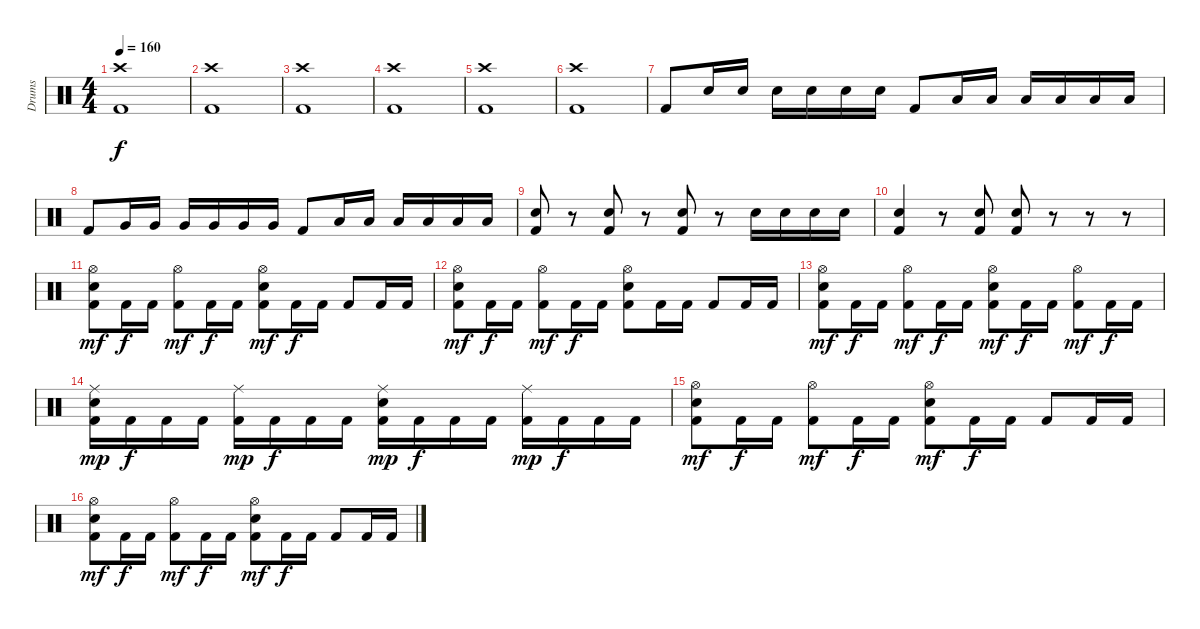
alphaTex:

\track ("Drums" "Drums") {instrument percussion}
\staff {score}
\articulation defaults
\ts (4 4)
\tempo 160
\clef neutral
\ks c
("Crash high (hit)" "Kick (hit) 2").1{dy f} |
("Crash high (hit)" "Kick (hit) 2").1 |
("Crash high (hit)" "Kick (hit) 2").1 |
("Crash high (hit)" "Kick (hit) 2").1 |
("Crash high (hit)" "Kick (hit) 2").1 |
("Crash high (hit)" "Kick (hit) 2").1 |
"Kick (hit) 2".8 "Electric Snare (hit)".16 "Electric Snare (hit)".16 "Electric Snare (hit)".16 "Electric Snare (hit)".16 "Electric Snare (hit)".16 "Electric Snare (hit)".16 "Kick (hit) 2".8 "Low Tom (hit)".16 "Low Tom (hit)".16 "Low Tom (hit)".16 "Low Tom (hit)".16 "Low Tom (hit)".16 "Low Tom (hit)".16 |
"Kick (hit) 2".8 "Very Low Tom (hit)".16 "Very Low Tom (hit)".16 "Very Low Tom (hit)".16 "Very Low Tom (hit)".16 "Very Low Tom (hit)".16 "Very Low Tom (hit)".16 "Kick (hit) 2".8 "Low Floor Tom (hit)".16 "Low Floor Tom (hit)".16 "Low Floor Tom (hit)".16 "Low Floor Tom (hit)".16 "Low Floor Tom (hit)".16 "Low Floor Tom (hit)".16 |
("Electric Snare (hit)" "Kick (hit) 2").8 r.8 ("Electric Snare (hit)" "Kick (hit) 2").8 r.8 ("Electric Snare (hit)" "Kick (hit) 2").8 r.8 "Electric Snare (hit)".16 "Electric Snare (hit)".16 "Electric Snare (hit)".16 "Electric Snare (hit)".16 |
("Electric Snare (hit)" "Kick (hit) 2").4 r.8 ("Electric Snare (hit)" "Kick (hit) 2").8 ("Electric Snare (hit)" "Kick (hit) 2").8 r.8 r.8 r.8 |
("Hi-Hat (open)" "Electric Snare (hit)" "Kick (hit) 2").8{dy mf} "Kick (hit) 2".16{dy f} "Kick (hit) 2".16 ("Hi-Hat (open)" "Kick (hit) 2").8{dy mf} "Kick (hit) 2".16{dy f} "Kick (hit) 2".16 ("Hi-Hat (open)" "Electric Snare (hit)" "Kick (hit) 2").8{dy mf} "Kick (hit) 2".16{dy f} "Kick (hit) 2".16 "Kick (hit) 2".8 "Kick (hit) 2".16 "Kick (hit) 2".16 |
("Hi-Hat (open)" "Electric Snare (hit)" "Kick (hit) 2").8{dy mf} "Kick (hit) 2".16{dy f} "Kick (hit) 2".16 ("Hi-Hat (open)" "Kick (hit) 2").8{dy mf} "Kick (hit) 2".16{dy f} "Kick (hit) 2".16 ("Hi-Hat (open)" "Electric Snare (hit)" "Kick (hit) 2").8 "Kick (hit) 2".16 "Kick (hit) 2".16 "Kick (hit) 2".8 "Kick (hit) 2".16 "Kick (hit) 2".16 |
("Hi-Hat (open)" "Electric Snare (hit)" "Kick (hit) 2").8{dy mf} "Kick (hit) 2".16{dy f} "Kick (hit) 2".16 ("Hi-Hat (open)" "Kick (hit) 2").8{dy mf} "Kick (hit) 2".16{dy f} "Kick (hit) 2".16 ("Hi-Hat (open)" "Electric Snare (hit)" "Kick (hit) 2").8{dy mf} "Kick (hit) 2".16{dy f} "Kick (hit) 2".16 ("Hi-Hat (open)" "Kick (hit) 2").8{dy mf} "Kick (hit) 2".16{dy f} "Kick (hit) 2".16 |
("Ride (middle)" "Electric Snare (hit)" "Kick (hit) 2").16{dy mp} "Kick (hit) 2".16{dy f} "Kick (hit) 2".16 "Kick (hit) 2".16 ("Ride (middle)" "Kick (hit) 2").16{dy mp} "Kick (hit) 2".16{dy f} "Kick (hit) 2".16 "Kick (hit) 2".16 ("Ride (middle)" "Electric Snare (hit)" "Kick (hit) 2").16{dy mp} "Kick (hit) 2".16{dy f} "Kick (hit) 2".16 "Kick (hit) 2".16 ("Ride (middle)" "Kick (hit) 2").16{dy mp} "Kick (hit) 2".16{dy f} "Kick (hit) 2".16 "Kick (hit) 2".16 |
("Hi-Hat (open)" "Electric Snare (hit)" "Kick (hit) 2").8{dy mf} "Kick (hit) 2".16{dy f} "Kick (hit) 2".16 ("Hi-Hat (open)" "Kick (hit) 2").8{dy mf} "Kick (hit) 2".16{dy f} "Kick (hit) 2".16 ("Hi-Hat (open)" "Electric Snare (hit)" "Kick (hit) 2").8{dy mf} "Kick (hit) 2".16{dy f} "Kick (hit) 2".16 "Kick (hit) 2".8 "Kick (hit) 2".16 "Kick (hit) 2".16 |
("Hi-Hat (open)" "Electric Snare (hit)" "Kick (hit) 2").8{dy mf} "Kick (hit) 2".16{dy f} "Kick (hit) 2".16 ("Hi-Hat (open)" "Kick (hit) 2").8{dy mf} "Kick (hit) 2".16{dy f} "Kick (hit) 2".16 ("Hi-Hat (open)" "Electric Snare (hit)" "Kick (hit) 2").8{dy mf} "Kick (hit) 2".16{dy f} "Kick (hit) 2".16 "Kick (hit) 2".8 "Kick (hit) 2".16 "Kick (hit) 2".16
